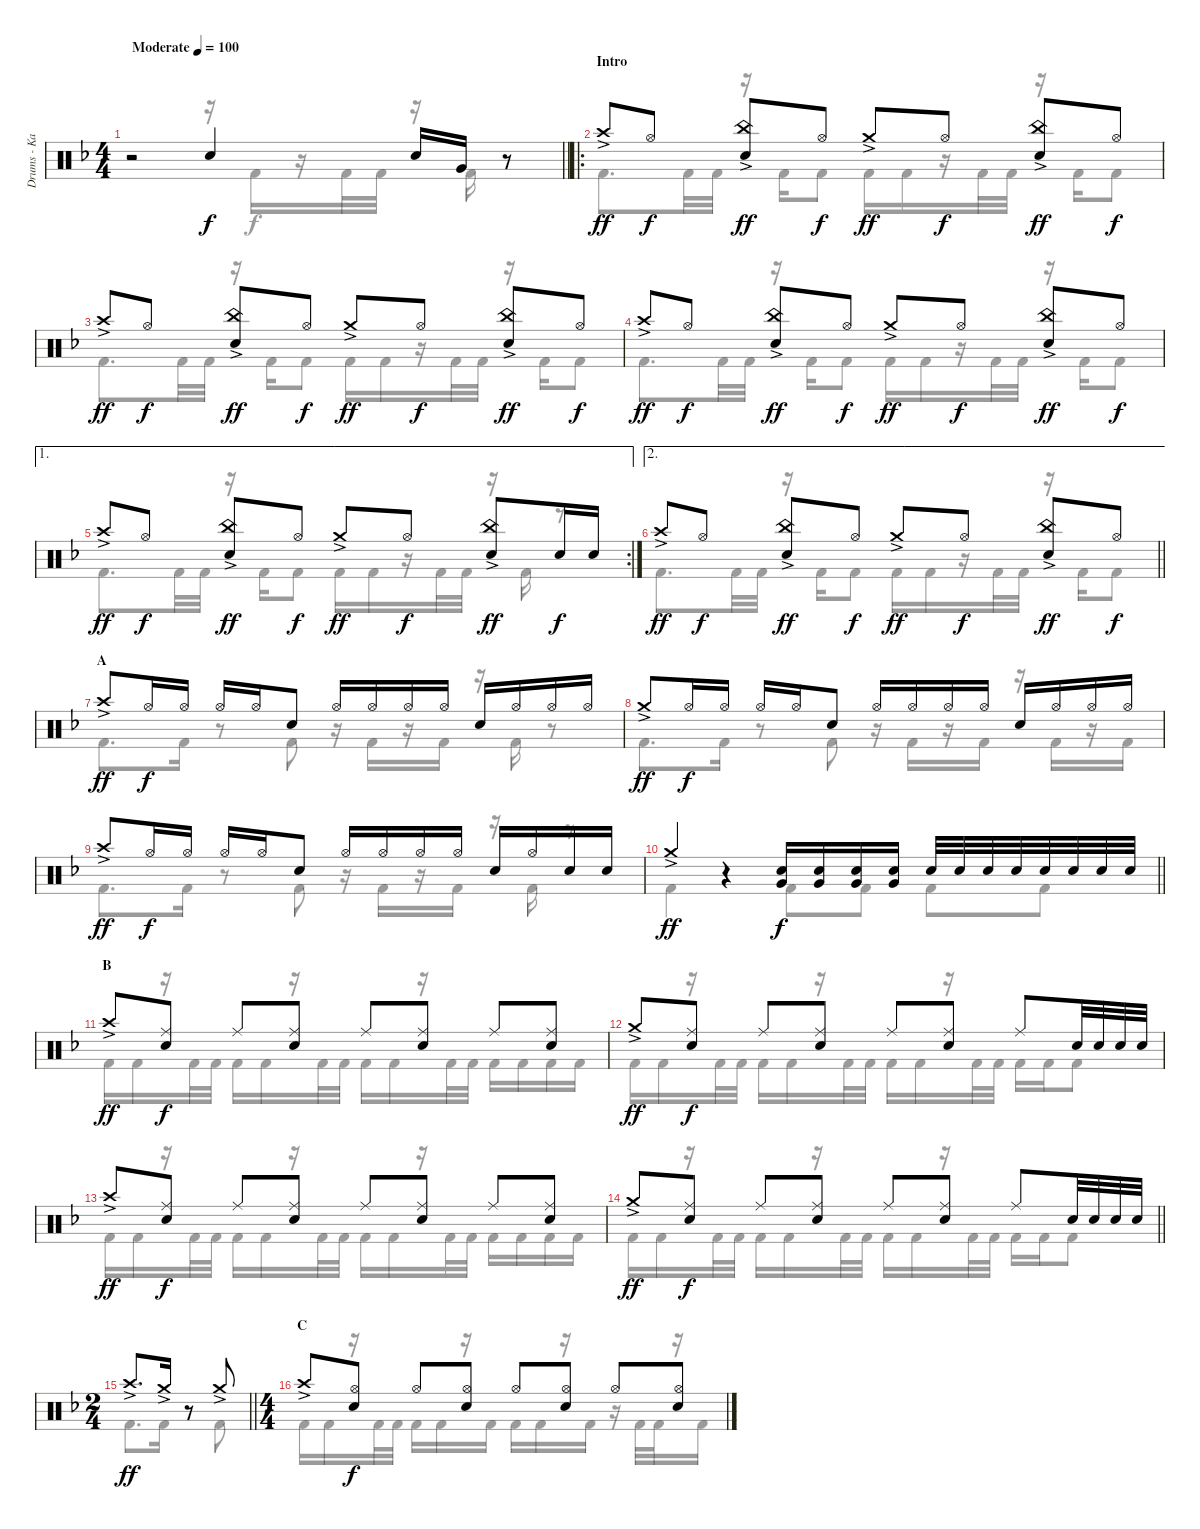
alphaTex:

\track ("Drums - Kai" "Drums - Ka") {instrument percussion}
\staff {score}
\articulation defaults
\voice
\ts (4 4)
\tempo (100 "Moderate")
\clef neutral
\barLineRight lightlight
\ks f
r.2{dy f} "Electric Snare (hit)".4 "Electric Snare (hit)".16 "Very Low Tom (hit)".16 r.8 |
\ro
\section ("" "Intro")
"Crash high (hit)"{ac}.8{dy ff} "Hi-Hat (open)".8{dy f} ("China (hit)"{ac} "Electric Snare (hit)").8{dy ff} "Hi-Hat (open)".8{dy f} "Crash medium (hit)"{ac}.8{dy ff} "Hi-Hat (open)".8{dy f} ("China (hit)"{ac} "Electric Snare (hit)").8{dy ff} "Hi-Hat (open)".8{dy f} |
"Crash high (hit)"{ac}.8{dy ff} "Hi-Hat (open)".8{dy f} ("China (hit)"{ac} "Electric Snare (hit)").8{dy ff} "Hi-Hat (open)".8{dy f} "Crash medium (hit)"{ac}.8{dy ff} "Hi-Hat (open)".8{dy f} ("China (hit)"{ac} "Electric Snare (hit)").8{dy ff} "Hi-Hat (open)".8{dy f} |
"Crash high (hit)"{ac}.8{dy ff} "Hi-Hat (open)".8{dy f} ("China (hit)"{ac} "Electric Snare (hit)").8{dy ff} "Hi-Hat (open)".8{dy f} "Crash medium (hit)"{ac}.8{dy ff} "Hi-Hat (open)".8{dy f} ("China (hit)"{ac} "Electric Snare (hit)").8{dy ff} "Hi-Hat (open)".8{dy f} |
\ae 1
\rc 2 "Crash high (hit)"{ac}.8{dy ff} "Hi-Hat (open)".8{dy f}
("China (hit)"{ac} "Electric Snare (hit)").8{dy ff} "Hi-Hat (open)".8{dy f} "Crash medium (hit)"{ac}.8{dy ff} "Hi-Hat (open)".8{dy f} ("China (hit)"{ac} "Electric Snare (hit)").8{dy ff} "Electric Snare (hit)".16{dy f} "Electric Snare (hit)".16 |
\ae 2
\barLineRight lightlight "Crash high (hit)"{ac}.8{dy ff} "Hi-Hat (open)".8{dy f}
("China (hit)"{ac} "Electric Snare (hit)").8{dy ff} "Hi-Hat (open)".8{dy f} "Crash medium (hit)"{ac}.8{dy ff} "Hi-Hat (open)".8{dy f} ("China (hit)"{ac} "Electric Snare (hit)").8{dy ff} "Hi-Hat (open)".8{dy f} |
\section ("" "A")
"Crash high (hit)"{ac}.8{dy ff} "Hi-Hat (open)".16{dy f} "Hi-Hat (open)".16 "Hi-Hat (open)".16 "Hi-Hat (open)".16 "Electric Snare (hit)".8 "Hi-Hat (open)".16 "Hi-Hat (open)".16 "Hi-Hat (open)".16 "Hi-Hat (open)".16 "Electric Snare (hit)".16 "Hi-Hat (open)".16 "Hi-Hat (open)".16 "Hi-Hat (open)".16 |
"Crash medium (hit)"{ac}.8{dy ff} "Hi-Hat (open)".16{dy f} "Hi-Hat (open)".16 "Hi-Hat (open)".16 "Hi-Hat (open)".16 "Electric Snare (hit)".8 "Hi-Hat (open)".16 "Hi-Hat (open)".16 "Hi-Hat (open)".16 "Hi-Hat (open)".16 "Electric Snare (hit)".16 "Hi-Hat (open)".16 "Hi-Hat (open)".16 "Hi-Hat (open)".16 |
"Crash high (hit)"{ac}.8{dy ff} "Hi-Hat (open)".16{dy f} "Hi-Hat (open)".16 "Hi-Hat (open)".16 "Hi-Hat (open)".16 "Electric Snare (hit)".8 "Hi-Hat (open)".16 "Hi-Hat (open)".16 "Hi-Hat (open)".16 "Hi-Hat (open)".16 "Electric Snare (hit)".16 "Hi-Hat (open)".16 "Electric Snare (hit)".16 "Electric Snare (hit)".16 |
\barLineRight lightlight "Crash medium (hit)"{ac}.4{dy ff}
r.4 ("Very Low Tom (hit)" "Electric Snare (hit)").16{dy f} ("Very Low Tom (hit)" "Electric Snare (hit)").16 ("Very Low Tom (hit)" "Electric Snare (hit)").16 ("Very Low Tom (hit)" "Electric Snare (hit)").16 "Electric Snare (hit)".32 "Electric Snare (hit)".32 "Electric Snare (hit)".32 "Electric Snare (hit)".32 "Electric Snare (hit)".32 "Electric Snare (hit)".32 "Electric Snare (hit)".32 "Electric Snare (hit)".32 |
\section ("" "B")
"Crash high (hit)"{ac}.8{dy ff} ("Ride (middle)" "Electric Snare (hit)").8{dy f} "Ride (middle)".8 ("Ride (middle)" "Electric Snare (hit)").8 "Ride (middle)".8 ("Ride (middle)" "Electric Snare (hit)").8 "Ride (middle)".8 ("Ride (middle)" "Electric Snare (hit)").8 |
"Crash medium (hit)"{ac}.8{dy ff} ("Ride (middle)" "Electric Snare (hit)").8{dy f} "Ride (middle)".8 ("Ride (middle)" "Electric Snare (hit)").8 "Ride (middle)".8 ("Ride (middle)" "Electric Snare (hit)").8 "Ride (middle)".8 "Electric Snare (hit)".32 "Electric Snare (hit)".32 "Electric Snare (hit)".32 "Electric Snare (hit)".32 |
"Crash high (hit)"{ac}.8{dy ff} ("Ride (middle)" "Electric Snare (hit)").8{dy f} "Ride (middle)".8 ("Ride (middle)" "Electric Snare (hit)").8 "Ride (middle)".8 ("Ride (middle)" "Electric Snare (hit)").8 "Ride (middle)".8 ("Ride (middle)" "Electric Snare (hit)").8 |
\barLineRight lightlight "Crash medium (hit)"{ac}.8{dy ff}
("Ride (middle)" "Electric Snare (hit)").8{dy f} "Ride (middle)".8 ("Ride (middle)" "Electric Snare (hit)").8 "Ride (middle)".8 ("Ride (middle)" "Electric Snare (hit)").8 "Ride (middle)".8 "Electric Snare (hit)".32 "Electric Snare (hit)".32 "Electric Snare (hit)".32 "Electric Snare (hit)".32 |
\ts (2 4)
\barLineRight lightlight "Crash high (hit)"{ac}.8{d dy ff} "Crash medium (hit)"{ac}.16
r.8 "Crash medium (hit)"{ac}.8 |
\ts (4 4)
\section ("" "C")
"Crash high (hit)"{ac}.8 ("Hi-Hat (open)" "Electric Snare (hit)").8{dy f} "Hi-Hat (open)".8 ("Hi-Hat (open)" "Electric Snare (hit)").8 "Hi-Hat (open)".8 ("Hi-Hat (open)" "Electric Snare (hit)").8 "Hi-Hat (open)".8 ("Hi-Hat (open)" "Electric Snare (hit)").8
\voice
\clef neutral
\ottava regular
\simile none
\barLineRight lightlight
\ks f
r.2{dy f} r.16 "Kick (hit) 2".16 r.16 "Kick (hit) 2".32 "Kick (hit) 2".32 r.16 "Kick (hit) 2".16 r.8 |
"Kick (hit) 2".8{d} "Kick (hit) 2".32 "Kick (hit) 2".32 r.16 "Kick (hit) 2".16 "Kick (hit) 2".8 "Kick (hit) 2".16 "Kick (hit) 2".16 r.16 "Kick (hit) 2".32 "Kick (hit) 2".32 r.16 "Kick (hit) 2".16 "Kick (hit) 2".8 |
"Kick (hit) 2".8{d} "Kick (hit) 2".32 "Kick (hit) 2".32 r.16 "Kick (hit) 2".16 "Kick (hit) 2".8 "Kick (hit) 2".16 "Kick (hit) 2".16 r.16 "Kick (hit) 2".32 "Kick (hit) 2".32 r.16 "Kick (hit) 2".16 "Kick (hit) 2".8 |
"Kick (hit) 2".8{d} "Kick (hit) 2".32 "Kick (hit) 2".32 r.16 "Kick (hit) 2".16 "Kick (hit) 2".8 "Kick (hit) 2".16 "Kick (hit) 2".16 r.16 "Kick (hit) 2".32 "Kick (hit) 2".32 r.16 "Kick (hit) 2".16 "Kick (hit) 2".8 |
"Kick (hit) 2".8{d} "Kick (hit) 2".32 "Kick (hit) 2".32 r.16 "Kick (hit) 2".16 "Kick (hit) 2".8 "Kick (hit) 2".16 "Kick (hit) 2".16 r.16 "Kick (hit) 2".32 "Kick (hit) 2".32 r.16 "Kick (hit) 2".16 r.8 |
\barLineRight lightlight "Kick (hit) 2".8{d} "Kick (hit) 2".32 "Kick (hit) 2".32
r.16 "Kick (hit) 2".16 "Kick (hit) 2".8 "Kick (hit) 2".16 "Kick (hit) 2".16 r.16 "Kick (hit) 2".32 "Kick (hit) 2".32 r.16 "Kick (hit) 2".16 "Kick (hit) 2".8 |
"Kick (hit) 2".8{d} "Kick (hit) 2".16 r.8 "Kick (hit) 2".8 r.16 "Kick (hit) 2".16 r.16 "Kick (hit) 2".16 r.16 "Kick (hit) 2".16 r.8 |
"Kick (hit) 2".8{d} "Kick (hit) 2".16 r.8 "Kick (hit) 2".8 r.16 "Kick (hit) 2".16 r.16 "Kick (hit) 2".16 r.16 "Kick (hit) 2".16 r.16 "Kick (hit) 2".16 |
"Kick (hit) 2".8{d} "Kick (hit) 2".16 r.8 "Kick (hit) 2".8 r.16 "Kick (hit) 2".16 r.16 "Kick (hit) 2".16 r.16 "Kick (hit) 2".16 r.8 |
\barLineRight lightlight "Kick (hit) 2".4
r.4 "Kick (hit) 2".8 "Kick (hit) 2".8 "Kick (hit) 2".8 "Kick (hit) 2".8 |
"Kick (hit) 2".16 "Kick (hit) 2".16 r.16 "Kick (hit) 2".32 "Kick (hit) 2".32 "Kick (hit) 2".16 "Kick (hit) 2".16 r.16 "Kick (hit) 2".32 "Kick (hit) 2".32 "Kick (hit) 2".16 "Kick (hit) 2".16 r.16 "Kick (hit) 2".32 "Kick (hit) 2".32 "Kick (hit) 2".16 "Kick (hit) 2".16 "Kick (hit) 2".16 "Kick (hit) 2".16 |
"Kick (hit) 2".16 "Kick (hit) 2".16 r.16 "Kick (hit) 2".32 "Kick (hit) 2".32 "Kick (hit) 2".16 "Kick (hit) 2".16 r.16 "Kick (hit) 2".32 "Kick (hit) 2".32 "Kick (hit) 2".16 "Kick (hit) 2".16 r.16 "Kick (hit) 2".32 "Kick (hit) 2".32 "Kick (hit) 2".16 "Kick (hit) 2".16 "Kick (hit) 2".8 |
"Kick (hit) 2".16 "Kick (hit) 2".16 r.16 "Kick (hit) 2".32 "Kick (hit) 2".32 "Kick (hit) 2".16 "Kick (hit) 2".16 r.16 "Kick (hit) 2".32 "Kick (hit) 2".32 "Kick (hit) 2".16 "Kick (hit) 2".16 r.16 "Kick (hit) 2".32 "Kick (hit) 2".32 "Kick (hit) 2".16 "Kick (hit) 2".16 "Kick (hit) 2".16 "Kick (hit) 2".16 |
\barLineRight lightlight "Kick (hit) 2".16 "Kick (hit) 2".16
r.16 "Kick (hit) 2".32 "Kick (hit) 2".32 "Kick (hit) 2".16 "Kick (hit) 2".16 r.16 "Kick (hit) 2".32 "Kick (hit) 2".32 "Kick (hit) 2".16 "Kick (hit) 2".16 r.16 "Kick (hit) 2".32 "Kick (hit) 2".32 "Kick (hit) 2".16 "Kick (hit) 2".16 "Kick (hit) 2".8 |
\barLineRight lightlight "Kick (hit) 2".8{d} "Kick (hit) 2".16
r.8 "Kick (hit) 2".8 |
"Kick (hit) 2".16 "Kick (hit) 2".16 r.16 "Kick (hit) 2".32 "Kick (hit) 2".32 "Kick (hit) 2".16 "Kick (hit) 2".16 r.16 "Kick (hit) 2".16 "Kick (hit) 2".16 "Kick (hit) 2".16 r.16 "Kick (hit) 2".16 r.16 "Kick (hit) 2".32 "Kick (hit) 2".32 r.16 "Kick (hit) 2".16
